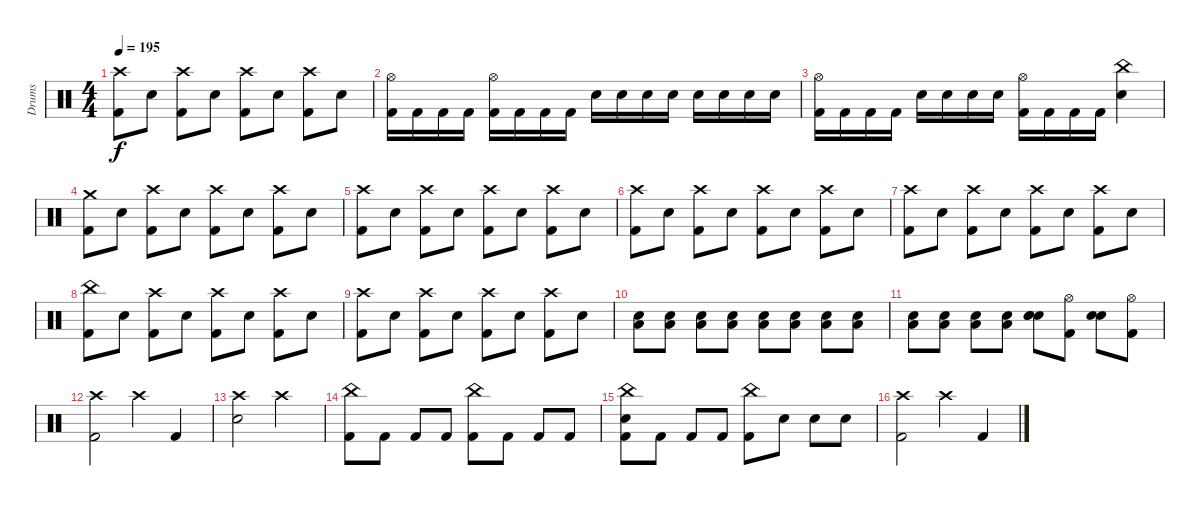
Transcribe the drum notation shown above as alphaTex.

\track ("Drums" "Drums") {instrument percussion}
\staff {score}
\articulation defaults
\ts (4 4)
\tempo 195
\clef neutral
\ks c
("Crash high (hit)" "Kick (hit) 2").8{dy f} "Snare (hit) 2".8 ("Crash high (hit)" "Kick (hit) 2").8 "Snare (hit) 2".8 ("Crash high (hit)" "Kick (hit) 2").8 "Snare (hit) 2".8 ("Crash high (hit)" "Kick (hit) 2").8 "Snare (hit) 2".8 |
("Hi-Hat (open)" "Kick (hit) 2").16 "Kick (hit) 2".16 "Kick (hit) 2".16 "Kick (hit) 2".16 ("Hi-Hat (open)" "Kick (hit) 2").16 "Kick (hit) 2".16 "Kick (hit) 2".16 "Kick (hit) 2".16 "Snare (hit) 2".16 "Snare (hit) 2".16 "Snare (hit) 2".16 "Snare (hit) 2".16 "Snare (hit) 2".16 "Snare (hit) 2".16 "Snare (hit) 2".16 "Snare (hit) 2".16 |
("Hi-Hat (open)" "Kick (hit) 2").16 "Kick (hit) 2".16 "Kick (hit) 2".16 "Kick (hit) 2".16 "Snare (hit) 2".16 "Snare (hit) 2".16 "Snare (hit) 2".16 "Snare (hit) 2".16 ("Hi-Hat (open)" "Kick (hit) 2").16 "Kick (hit) 2".16 "Kick (hit) 2".16 "Kick (hit) 2".16 ("China (hit)" "Snare (hit) 2").4 |
("Crash medium (hit)" "Kick (hit) 2").8 "Snare (hit) 2".8 ("Crash high (hit)" "Kick (hit) 2").8 "Snare (hit) 2".8 ("Crash high (hit)" "Kick (hit) 2").8 "Snare (hit) 2".8 ("Crash high (hit)" "Kick (hit) 2").8 "Snare (hit) 2".8 |
("Crash high (hit)" "Kick (hit) 2").8 "Snare (hit) 2".8 ("Crash high (hit)" "Kick (hit) 2").8 "Snare (hit) 2".8 ("Crash high (hit)" "Kick (hit) 2").8 "Snare (hit) 2".8 ("Crash high (hit)" "Kick (hit) 2").8 "Snare (hit) 2".8 |
("Crash high (hit)" "Kick (hit) 2").8 "Snare (hit) 2".8 ("Crash high (hit)" "Kick (hit) 2").8 "Snare (hit) 2".8 ("Crash high (hit)" "Kick (hit) 2").8 "Snare (hit) 2".8 ("Crash high (hit)" "Kick (hit) 2").8 "Snare (hit) 2".8 |
("Crash high (hit)" "Kick (hit) 2").8 "Snare (hit) 2".8 ("Crash high (hit)" "Kick (hit) 2").8 "Snare (hit) 2".8 ("Crash high (hit)" "Kick (hit) 2").8 "Snare (hit) 2".8 ("Crash high (hit)" "Kick (hit) 2").8 "Snare (hit) 2".8 |
("China (hit)" "Kick (hit) 2").8 "Snare (hit) 2".8 ("Crash high (hit)" "Kick (hit) 2").8 "Snare (hit) 2".8 ("Crash high (hit)" "Kick (hit) 2").8 "Snare (hit) 2".8 ("Crash high (hit)" "Kick (hit) 2").8 "Snare (hit) 2".8 |
("Crash high (hit)" "Kick (hit) 2").8 "Snare (hit) 2".8 ("Crash high (hit)" "Kick (hit) 2").8 "Snare (hit) 2".8 ("Crash high (hit)" "Kick (hit) 2").8 "Snare (hit) 2".8 ("Crash high (hit)" "Kick (hit) 2").8 "Snare (hit) 2".8 |
("Low Floor Tom (hit)" "Snare (hit) 2").8 ("Low Floor Tom (hit)" "Snare (hit) 2").8{volume 8} ("Low Floor Tom (hit)" "Snare (hit) 2").8{volume 13} ("Low Floor Tom (hit)" "Snare (hit) 2").8 ("Low Floor Tom (hit)" "Snare (hit) 2").8 ("Low Floor Tom (hit)" "Snare (hit) 2").8 ("Low Floor Tom (hit)" "Snare (hit) 2").8 ("Low Floor Tom (hit)" "Snare (hit) 2").8 |
("Low Floor Tom (hit)" "Snare (hit) 2").8 ("Low Floor Tom (hit)" "Snare (hit) 2").8 ("Low Floor Tom (hit)" "Snare (hit) 2").8 ("Low Floor Tom (hit)" "Snare (hit) 2").8 ("Snare (hit)" "Snare (hit) 2" "Snare (hit) 2").8 ("Hi-Hat (open)" "Kick (hit) 2").8 ("Snare (hit) 2" "Snare (hit) 2").8 ("Hi-Hat (open)" "Kick (hit) 2").8 |
("Crash high (hit)" "Kick (hit) 2").2 "Crash high (hit)".4 "Kick (hit) 2".4 |
("Crash high (hit)" "Snare (hit) 2").2 "Crash high (hit)".2 |
("China (hit)" "Kick (hit) 2").8 "Kick (hit) 2".8 "Kick (hit) 2".8 "Kick (hit) 2".8 ("China (hit)" "Kick (hit) 2").8 "Kick (hit) 2".8 "Kick (hit) 2".8 "Kick (hit) 2".8 |
("China (hit)" "Snare (hit) 2" "Kick (hit) 2").8 "Kick (hit) 2".8 "Kick (hit) 2".8 "Kick (hit) 2".8 ("China (hit)" "Kick (hit) 2").8 "Snare (hit) 2".8 "Snare (hit) 2".8 "Snare (hit) 2".8 |
("Crash high (hit)" "Kick (hit) 2").2 "Crash high (hit)".4 "Kick (hit) 2".4
